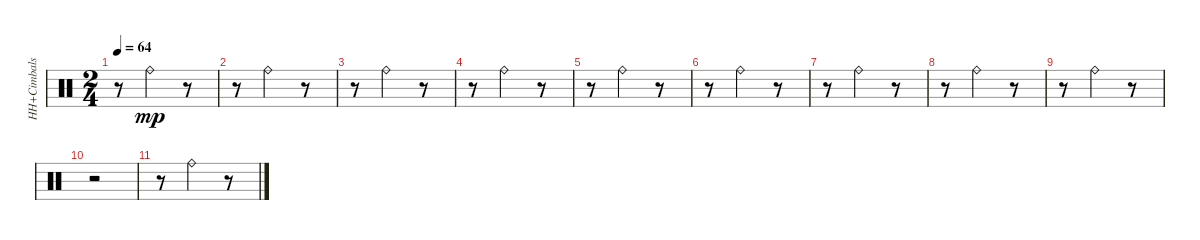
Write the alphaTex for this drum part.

\track ("HH+Cimbals" "HH+Cimbals") {instrument percussion}
\staff {score}
\articulation defaults
\ts (2 4)
\tempo 64
\clef neutral
\ks c
r.8{dy mp} "Ride (bell)".4 r.8 |
r.8 "Ride (bell)".4 r.8 |
r.8 "Ride (bell)".4 r.8 |
r.8 "Ride (bell)".4 r.8 |
r.8 "Ride (bell)".4 r.8 |
r.8 "Ride (bell)".4 r.8 |
r.8 "Ride (bell)".4 r.8 |
r.8 "Ride (bell)".4 r.8 |
r.8 "Ride (bell)".4 r.8 |
r.2 |
r.8 "Ride (bell)".4 r.8
